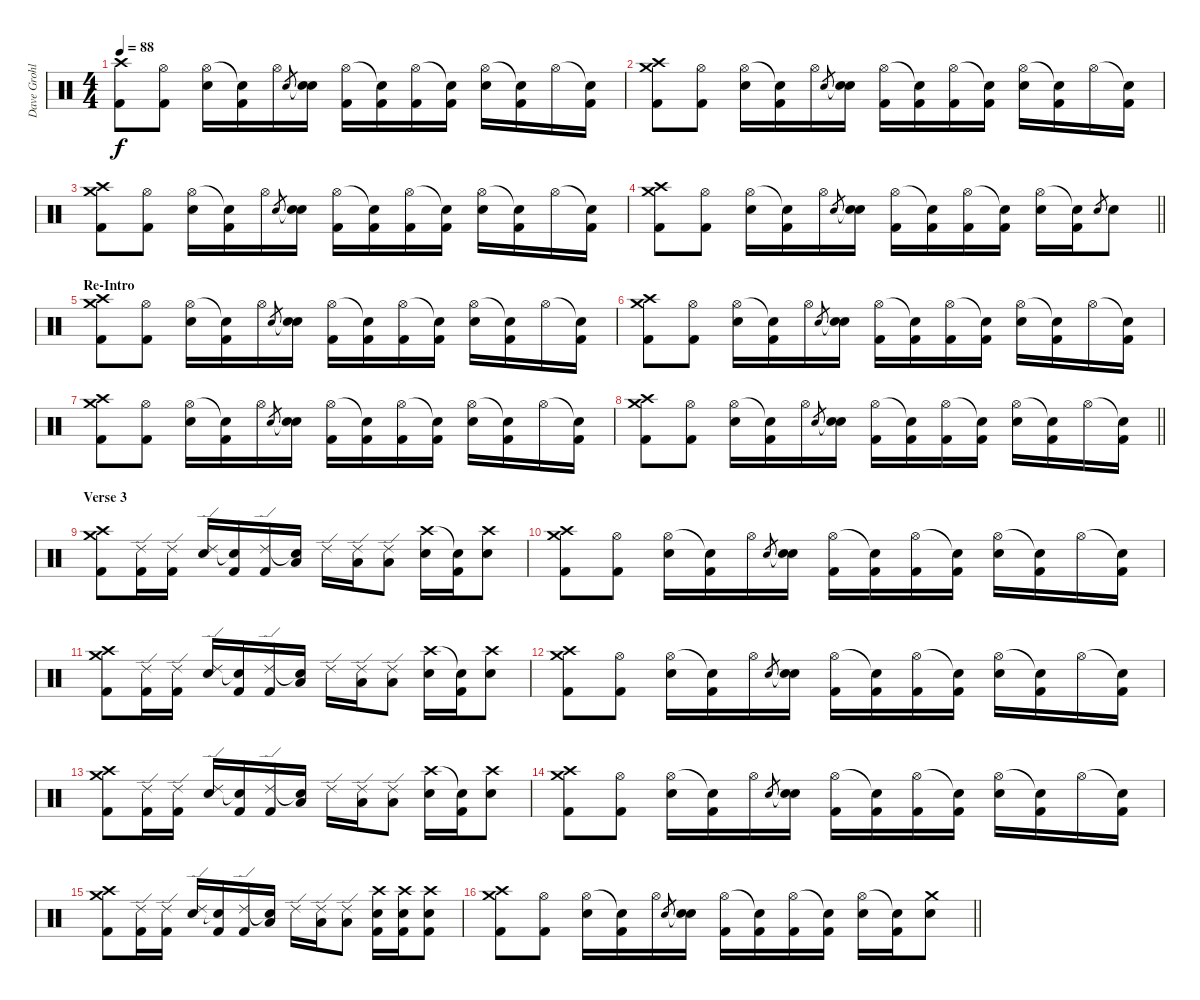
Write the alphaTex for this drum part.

\track ("Dave Grohl - Drums" "Dave Grohl") {instrument percussion}
\staff {score}
\articulation defaults
\ts (4 4)
\tempo 88
\clef neutral
\ks c
("Crash high (hit)" "Kick (hit) 2").8{dy f} ("Hi-Hat (open)" "Kick (hit) 2").8 ("Hi-Hat (open)" "Electric Snare (hit)").16 ("Snare (hit)"{t} "Kick (hit) 2").16 "Hi-Hat (open)".16 "Electric Snare (hit)".8{gr} ("Snare (hit)"{t} "Electric Snare (hit)").16 ("Hi-Hat (open)" "Kick (hit) 2").16 ("Snare (hit)"{t} "Kick (hit) 2").16 ("Hi-Hat (open)" "Kick (hit) 2").16 ("Snare (hit)"{t} "Kick (hit) 2").16 ("Hi-Hat (open)" "Electric Snare (hit)").16 ("Snare (hit)"{t} "Kick (hit) 2").16 "Hi-Hat (open)".16 ("Snare (hit)"{t} "Kick (hit) 2").16 |
("Crash high (hit)" "Crash medium (hit)" "Kick (hit) 2").8 ("Hi-Hat (open)" "Kick (hit) 2").8 ("Hi-Hat (open)" "Electric Snare (hit)").16 ("Snare (hit)"{t} "Kick (hit) 2").16 "Hi-Hat (open)".16 "Electric Snare (hit)".8{gr} ("Snare (hit)"{t} "Electric Snare (hit)").16 ("Hi-Hat (open)" "Kick (hit) 2").16 ("Snare (hit)"{t} "Kick (hit) 2").16 ("Hi-Hat (open)" "Kick (hit) 2").16 ("Snare (hit)"{t} "Kick (hit) 2").16 ("Hi-Hat (open)" "Electric Snare (hit)").16 ("Snare (hit)"{t} "Kick (hit) 2").16 "Hi-Hat (open)".16 ("Snare (hit)"{t} "Kick (hit) 2").16 |
("Crash high (hit)" "Crash medium (hit)" "Kick (hit) 2").8 ("Hi-Hat (open)" "Kick (hit) 2").8 ("Hi-Hat (open)" "Electric Snare (hit)").16 ("Snare (hit)"{t} "Kick (hit) 2").16 "Hi-Hat (open)".16 "Electric Snare (hit)".8{gr} ("Snare (hit)"{t} "Electric Snare (hit)").16 ("Hi-Hat (open)" "Kick (hit) 2").16 ("Snare (hit)"{t} "Kick (hit) 2").16 ("Hi-Hat (open)" "Kick (hit) 2").16 ("Snare (hit)"{t} "Kick (hit) 2").16 ("Hi-Hat (open)" "Electric Snare (hit)").16 ("Snare (hit)"{t} "Kick (hit) 2").16 "Hi-Hat (open)".16 ("Snare (hit)"{t} "Kick (hit) 2").16 |
\barLineRight lightlight
("Crash high (hit)" "Crash medium (hit)" "Kick (hit) 2").8 ("Hi-Hat (open)" "Kick (hit) 2").8 ("Hi-Hat (open)" "Electric Snare (hit)").16 ("Snare (hit)"{t} "Kick (hit) 2").16 "Hi-Hat (open)".16 "Electric Snare (hit)".8{gr} ("Snare (hit)"{t} "Electric Snare (hit)").16 ("Hi-Hat (open)" "Kick (hit) 2").16 ("Snare (hit)"{t} "Kick (hit) 2").16 ("Hi-Hat (open)" "Kick (hit) 2").16 ("Snare (hit)"{t} "Kick (hit) 2").16 ("Hi-Hat (open)" "Electric Snare (hit)").16 ("Snare (hit)"{t} "Kick (hit) 2").16 "Electric Snare (hit)".8{gr} "Electric Snare (hit)".8 |
\section ("" "Re-Intro")
("Crash high (hit)" "Crash medium (hit)" "Kick (hit) 2").8 ("Hi-Hat (open)" "Kick (hit) 2").8 ("Hi-Hat (open)" "Electric Snare (hit)").16 ("Snare (hit)"{t} "Kick (hit) 2").16 "Hi-Hat (open)".16 "Electric Snare (hit)".8{gr} ("Snare (hit)"{t} "Electric Snare (hit)").16 ("Hi-Hat (open)" "Kick (hit) 2").16 ("Snare (hit)"{t} "Kick (hit) 2").16 ("Hi-Hat (open)" "Kick (hit) 2").16 ("Snare (hit)"{t} "Kick (hit) 2").16 ("Hi-Hat (open)" "Electric Snare (hit)").16 ("Snare (hit)"{t} "Kick (hit) 2").16 "Hi-Hat (open)".16 ("Snare (hit)"{t} "Kick (hit) 2").16 |
("Crash high (hit)" "Crash medium (hit)" "Kick (hit) 2").8 ("Hi-Hat (open)" "Kick (hit) 2").8 ("Hi-Hat (open)" "Electric Snare (hit)").16 ("Snare (hit)"{t} "Kick (hit) 2").16 "Hi-Hat (open)".16 "Electric Snare (hit)".8{gr} ("Snare (hit)"{t} "Electric Snare (hit)").16 ("Hi-Hat (open)" "Kick (hit) 2").16 ("Snare (hit)"{t} "Kick (hit) 2").16 ("Hi-Hat (open)" "Kick (hit) 2").16 ("Snare (hit)"{t} "Kick (hit) 2").16 ("Hi-Hat (open)" "Electric Snare (hit)").16 ("Snare (hit)"{t} "Kick (hit) 2").16 "Hi-Hat (open)".16 ("Snare (hit)"{t} "Kick (hit) 2").16 |
("Crash high (hit)" "Crash medium (hit)" "Kick (hit) 2").8 ("Hi-Hat (open)" "Kick (hit) 2").8 ("Hi-Hat (open)" "Electric Snare (hit)").16 ("Snare (hit)"{t} "Kick (hit) 2").16 "Hi-Hat (open)".16 "Electric Snare (hit)".8{gr} ("Snare (hit)"{t} "Electric Snare (hit)").16 ("Hi-Hat (open)" "Kick (hit) 2").16 ("Snare (hit)"{t} "Kick (hit) 2").16 ("Hi-Hat (open)" "Kick (hit) 2").16 ("Snare (hit)"{t} "Kick (hit) 2").16 ("Hi-Hat (open)" "Electric Snare (hit)").16 ("Snare (hit)"{t} "Kick (hit) 2").16 "Hi-Hat (open)".16 ("Snare (hit)"{t} "Kick (hit) 2").16 |
\barLineRight lightlight
("Crash high (hit)" "Crash medium (hit)" "Kick (hit) 2").8 ("Hi-Hat (open)" "Kick (hit) 2").8 ("Hi-Hat (open)" "Electric Snare (hit)").16 ("Snare (hit)"{t} "Kick (hit) 2").16 "Hi-Hat (open)".16 "Electric Snare (hit)".8{gr} ("Snare (hit)"{t} "Electric Snare (hit)").16 ("Hi-Hat (open)" "Kick (hit) 2").16 ("Snare (hit)"{t} "Kick (hit) 2").16 ("Hi-Hat (open)" "Kick (hit) 2").16 ("Snare (hit)"{t} "Kick (hit) 2").16 ("Hi-Hat (open)" "Electric Snare (hit)").16 ("Snare (hit)"{t} "Kick (hit) 2").16 "Hi-Hat (open)".16 ("Snare (hit)"{t} "Kick (hit) 2").16 |
\section ("" "Verse 3")
("Crash high (hit)" "Crash medium (hit)" "Kick (hit) 2").8 ("Ride (edge) 2" "Kick (hit) 2").16 ("Ride (edge) 2" "Kick (hit) 2").16 ("Ride (edge) 2" "Electric Snare (hit)").16 ("Snare (hit)"{t} "Kick (hit) 2").16 ("Ride (edge) 2" "Kick (hit) 2").16 ("Snare (hit)"{t} "Low Tom (hit)").16 "Ride (edge) 2".16 ("Ride (edge) 2" "Low Floor Tom (hit)").16 ("Ride (edge) 2" "Low Floor Tom (hit)").8 ("Crash high (hit)" "Electric Snare (hit)").16 ("Snare (hit)"{t} "Kick (hit) 2").16 ("Crash high (hit)" "Electric Snare (hit)").8 |
("Crash high (hit)" "Crash medium (hit)" "Kick (hit) 2").8 ("Hi-Hat (open)" "Kick (hit) 2").8 ("Hi-Hat (open)" "Electric Snare (hit)").16 ("Snare (hit)"{t} "Kick (hit) 2").16 "Hi-Hat (open)".16 "Electric Snare (hit)".8{gr} ("Snare (hit)"{t} "Electric Snare (hit)").16 ("Hi-Hat (open)" "Kick (hit) 2").16 ("Snare (hit)"{t} "Kick (hit) 2").16 ("Hi-Hat (open)" "Kick (hit) 2").16 ("Snare (hit)"{t} "Kick (hit) 2").16 ("Hi-Hat (open)" "Electric Snare (hit)").16 ("Snare (hit)"{t} "Kick (hit) 2").16 "Hi-Hat (open)".16 ("Snare (hit)"{t} "Kick (hit) 2").16 |
("Crash high (hit)" "Crash medium (hit)" "Kick (hit) 2").8 ("Ride (edge) 2" "Kick (hit) 2").16 ("Ride (edge) 2" "Kick (hit) 2").16 ("Ride (edge) 2" "Electric Snare (hit)").16 ("Snare (hit)"{t} "Kick (hit) 2").16 ("Ride (edge) 2" "Kick (hit) 2").16 ("Snare (hit)"{t} "Low Tom (hit)").16 "Ride (edge) 2".16 ("Ride (edge) 2" "Low Floor Tom (hit)").16 ("Ride (edge) 2" "Low Floor Tom (hit)").8 ("Crash high (hit)" "Electric Snare (hit)").16 ("Snare (hit)"{t} "Kick (hit) 2").16 ("Crash high (hit)" "Electric Snare (hit)").8 |
("Crash high (hit)" "Crash medium (hit)" "Kick (hit) 2").8 ("Hi-Hat (open)" "Kick (hit) 2").8 ("Hi-Hat (open)" "Electric Snare (hit)").16 ("Snare (hit)"{t} "Kick (hit) 2").16 "Hi-Hat (open)".16 "Electric Snare (hit)".8{gr} ("Snare (hit)"{t} "Electric Snare (hit)").16 ("Hi-Hat (open)" "Kick (hit) 2").16 ("Snare (hit)"{t} "Kick (hit) 2").16 ("Hi-Hat (open)" "Kick (hit) 2").16 ("Snare (hit)"{t} "Kick (hit) 2").16 ("Hi-Hat (open)" "Electric Snare (hit)").16 ("Snare (hit)"{t} "Kick (hit) 2").16 "Hi-Hat (open)".16 ("Snare (hit)"{t} "Kick (hit) 2").16 |
("Crash high (hit)" "Crash medium (hit)" "Kick (hit) 2").8 ("Ride (edge) 2" "Kick (hit) 2").16 ("Ride (edge) 2" "Kick (hit) 2").16 ("Ride (edge) 2" "Electric Snare (hit)").16 ("Snare (hit)"{t} "Kick (hit) 2").16 ("Ride (edge) 2" "Kick (hit) 2").16 ("Snare (hit)"{t} "Low Tom (hit)").16 "Ride (edge) 2".16 ("Ride (edge) 2" "Low Floor Tom (hit)").16 ("Ride (edge) 2" "Low Floor Tom (hit)").8 ("Crash high (hit)" "Electric Snare (hit)").16 ("Snare (hit)"{t} "Kick (hit) 2").16 ("Crash high (hit)" "Electric Snare (hit)").8 |
("Crash high (hit)" "Crash medium (hit)" "Kick (hit) 2").8 ("Hi-Hat (open)" "Kick (hit) 2").8 ("Hi-Hat (open)" "Electric Snare (hit)").16 ("Snare (hit)"{t} "Kick (hit) 2").16 "Hi-Hat (open)".16 "Electric Snare (hit)".8{gr} ("Snare (hit)"{t} "Electric Snare (hit)").16 ("Hi-Hat (open)" "Kick (hit) 2").16 ("Snare (hit)"{t} "Kick (hit) 2").16 ("Hi-Hat (open)" "Kick (hit) 2").16 ("Snare (hit)"{t} "Kick (hit) 2").16 ("Hi-Hat (open)" "Electric Snare (hit)").16 ("Snare (hit)"{t} "Kick (hit) 2").16 "Hi-Hat (open)".16 ("Snare (hit)"{t} "Kick (hit) 2").16 |
("Crash high (hit)" "Crash medium (hit)" "Kick (hit) 2").8 ("Ride (edge) 2" "Kick (hit) 2").16 ("Ride (edge) 2" "Kick (hit) 2").16 ("Ride (edge) 2" "Electric Snare (hit)").16 ("Snare (hit)"{t} "Kick (hit) 2").16 ("Ride (edge) 2" "Kick (hit) 2").16 ("Snare (hit)"{t} "Low Tom (hit)").16 "Ride (edge) 2".16 ("Ride (edge) 2" "Low Floor Tom (hit)").16 ("Ride (edge) 2" "Low Floor Tom (hit)").8 ("Crash high (hit)" "Electric Snare (hit)" "Kick (hit) 2").16 ("Crash high (hit)" "Electric Snare (hit)" "Kick (hit) 2").16 ("Crash high (hit)" "Electric Snare (hit)" "Kick (hit) 2").8 |
\barLineRight lightlight
("Crash high (hit)" "Crash medium (hit)" "Kick (hit) 2").8 ("Hi-Hat (open)" "Kick (hit) 2").8 ("Hi-Hat (open)" "Electric Snare (hit)").16 ("Snare (hit)"{t} "Kick (hit) 2").16 "Hi-Hat (open)".16 "Electric Snare (hit)".8{gr} ("Snare (hit)"{t} "Electric Snare (hit)").16 ("Hi-Hat (open)" "Kick (hit) 2").16 ("Snare (hit)"{t} "Kick (hit) 2").16 ("Hi-Hat (open)" "Kick (hit) 2").16 ("Snare (hit)"{t} "Kick (hit) 2").16 ("Hi-Hat (open)" "Electric Snare (hit)").16 ("Snare (hit)"{t} "Kick (hit) 2").16 ("Crash medium (hit)" "Electric Snare (hit)").8
